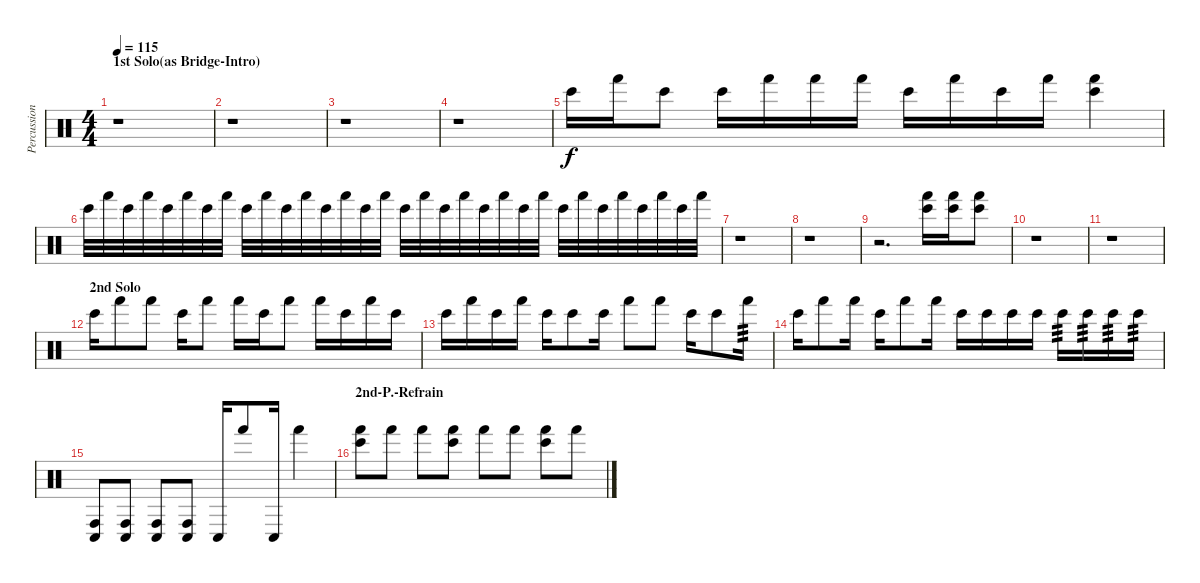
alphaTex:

\track ("Percussions" "Percussion") {instrument percussion}
\staff {score}
\articulation defaults
\ts (4 4)
\section ("" "1st Solo(as Bridge-Intro)")
\tempo 115
\clef neutral
\ks c
r.1{dy f} |
r.1 |
r.1 |
r.1 |
"Bongo High (hit)".16 "Hand (hit)".16 "Bongo High (hit)".8 "Bongo High (hit)".16 "Hand (hit)".16 "Hand (hit)".16 "Hand (hit)".16 "Bongo High (hit)".16 "Hand (hit)".16 "Bongo High (hit)".16 "Hand (hit)".16 ("Bongo High (hit)" "Hand (hit)").4 |
"Bongo High (hit)".32 "Hand (hit)".32 "Bongo High (hit)".32 "Hand (hit)".32 "Bongo High (hit)".32 "Hand (hit)".32 "Bongo High (hit)".32 "Hand (hit)".32 "Bongo High (hit)".32 "Hand (hit)".32 "Bongo High (hit)".32 "Hand (hit)".32 "Bongo High (hit)".32 "Hand (hit)".32 "Bongo High (hit)".32 "Hand (hit)".32 "Bongo High (hit)".32 "Hand (hit)".32 "Bongo High (hit)".32 "Hand (hit)".32 "Bongo High (hit)".32 "Hand (hit)".32 "Bongo High (hit)".32 "Hand (hit)".32 "Bongo High (hit)".32 "Hand (hit)".32 "Bongo High (hit)".32 "Hand (hit)".32 "Bongo High (hit)".32 "Hand (hit)".32 "Bongo High (hit)".32 "Hand (hit)".32 |
r.1 |
r.1 |
r.2{d} ("Bongo High (hit)" "Hand (hit)").16 ("Bongo High (hit)" "Hand (hit)").16 ("Bongo High (hit)" "Hand (hit)").8 |
r.1 |
r.1 |
\section ("" "2nd Solo")
"Bongo High (hit)".16 "Hand (hit)".8 "Hand (hit)".8 "Bongo High (hit)".16 "Hand (hit)".8 "Hand (hit)".16 "Bongo High (hit)".16 "Hand (hit)".8 "Hand (hit)".16 "Bongo High (hit)".16 "Hand (hit)".16 "Bongo High (hit)".16 |
"Bongo High (hit)".16 "Hand (hit)".16 "Bongo High (hit)".16 "Hand (hit)".16 "Bongo High (hit)".16 "Bongo High (hit)".8 "Bongo High (hit)".16 "Hand (hit)".8 "Hand (hit)".8 "Bongo High (hit)".16 "Bongo High (hit)".8 "Hand (hit)".16{tp 3} |
"Bongo High (hit)".16 "Hand (hit)".8 "Hand (hit)".16 "Bongo High (hit)".16 "Hand (hit)".8 "Hand (hit)".16 "Bongo High (hit)".16 "Bongo High (hit)".16 "Bongo High (hit)".16 "Bongo High (hit)".16 "Bongo High (hit)".16{tp 3} "Bongo High (hit)".16{tp 3} "Bongo High (hit)".16{tp 3} "Bongo High (hit)".16{tp 3} |
("Conga high (hit)" "Conga low (hit)").8 ("Conga high (hit)" "Conga low (hit)").8 ("Conga high (hit)" "Conga low (hit)").8 ("Conga high (hit)" "Conga low (hit)").8 "Conga low (hit)".16 "Hand (hit)".8 "Conga low (hit)".16 "Hand (hit)".4 |
\section ("" "2nd-P.-Refrain")
("Bongo High (hit)" "Hand (hit)").8 "Hand (hit)".8 "Hand (hit)".8 ("Bongo High (hit)" "Hand (hit)").8 "Hand (hit)".8 "Hand (hit)".8 ("Bongo High (hit)" "Hand (hit)").8 "Hand (hit)".8
